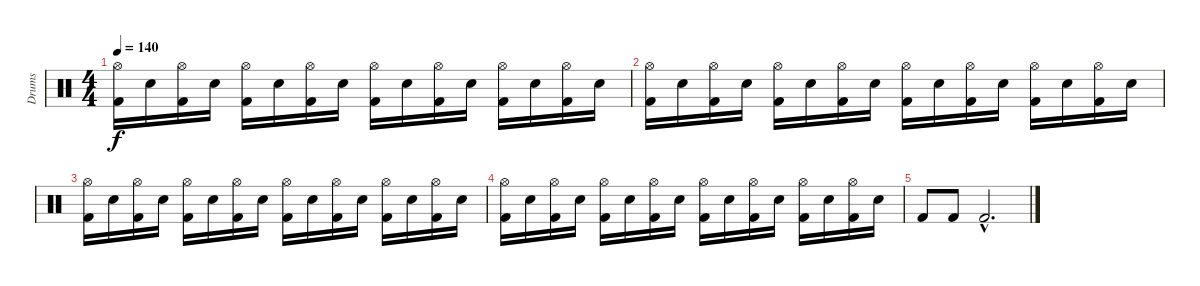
\track ("Drums" "Drums") {instrument percussion}
\staff {score}
\articulation defaults
\ts (4 4)
\tempo 140
\clef neutral
\ks c
("Kick (hit) 2" "Hi-Hat (open)").16{dy f} "Electric Snare (hit)".16 ("Kick (hit) 2" "Hi-Hat (open)").16 "Electric Snare (hit)".16 ("Kick (hit) 2" "Hi-Hat (open)").16 "Electric Snare (hit)".16 ("Kick (hit) 2" "Hi-Hat (open)").16 "Electric Snare (hit)".16 ("Kick (hit) 2" "Hi-Hat (open)").16 "Electric Snare (hit)".16 ("Kick (hit) 2" "Hi-Hat (open)").16 "Electric Snare (hit)".16 ("Kick (hit) 2" "Hi-Hat (open)").16 "Electric Snare (hit)".16 ("Kick (hit) 2" "Hi-Hat (open)").16 "Electric Snare (hit)".16 |
("Kick (hit) 2" "Hi-Hat (open)").16 "Electric Snare (hit)".16 ("Kick (hit) 2" "Hi-Hat (open)").16 "Electric Snare (hit)".16 ("Kick (hit) 2" "Hi-Hat (open)").16 "Electric Snare (hit)".16 ("Kick (hit) 2" "Hi-Hat (open)").16 "Electric Snare (hit)".16 ("Kick (hit) 2" "Hi-Hat (open)").16 "Electric Snare (hit)".16 ("Kick (hit) 2" "Hi-Hat (open)").16 "Electric Snare (hit)".16 ("Kick (hit) 2" "Hi-Hat (open)").16 "Electric Snare (hit)".16 ("Kick (hit) 2" "Hi-Hat (open)").16 "Electric Snare (hit)".16 |
("Kick (hit) 2" "Hi-Hat (open)").16 "Electric Snare (hit)".16 ("Kick (hit) 2" "Hi-Hat (open)").16 "Electric Snare (hit)".16 ("Kick (hit) 2" "Hi-Hat (open)").16 "Electric Snare (hit)".16 ("Kick (hit) 2" "Hi-Hat (open)").16 "Electric Snare (hit)".16 ("Kick (hit) 2" "Hi-Hat (open)").16 "Electric Snare (hit)".16 ("Kick (hit) 2" "Hi-Hat (open)").16 "Electric Snare (hit)".16 ("Kick (hit) 2" "Hi-Hat (open)").16 "Electric Snare (hit)".16 ("Kick (hit) 2" "Hi-Hat (open)").16 "Electric Snare (hit)".16 |
("Kick (hit) 2" "Hi-Hat (open)").16 "Electric Snare (hit)".16 ("Kick (hit) 2" "Hi-Hat (open)").16 "Electric Snare (hit)".16 ("Kick (hit) 2" "Hi-Hat (open)").16 "Electric Snare (hit)".16 ("Kick (hit) 2" "Hi-Hat (open)").16 "Electric Snare (hit)".16 ("Kick (hit) 2" "Hi-Hat (open)").16 "Electric Snare (hit)".16 ("Kick (hit) 2" "Hi-Hat (open)").16 "Electric Snare (hit)".16 ("Kick (hit) 2" "Hi-Hat (open)").16 "Electric Snare (hit)".16 ("Kick (hit) 2" "Hi-Hat (open)").16 "Electric Snare (hit)".16 |
"Kick (hit) 2".8 "Kick (hit) 2".8 "Kick (hit) 2"{hac}.2{d}
